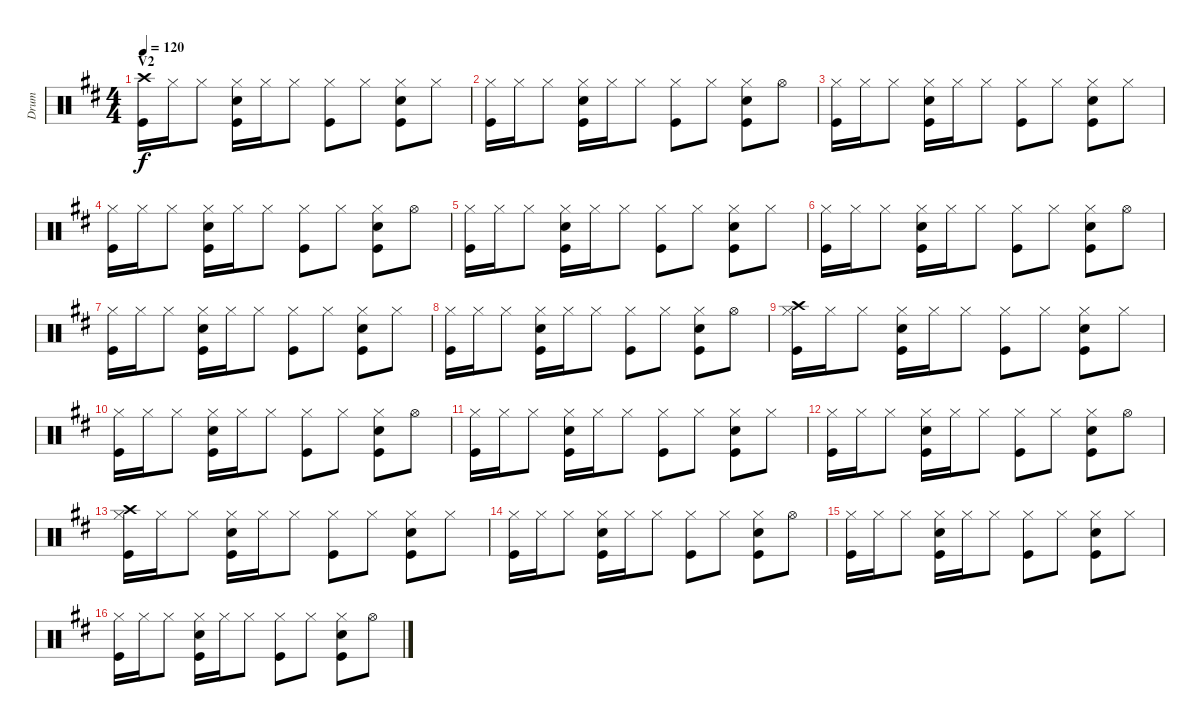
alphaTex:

\track ("Drum" "Drum") {instrument percussion}
\staff {score}
\articulation defaults
\ts (4 4)
\section ("" "V2")
\tempo 120
\clef neutral
\ks d
("Crash high (hit)" "Kick (hit)").16{dy f} "Hi-Hat (closed)".16 "Hi-Hat (closed)".8 ("Hi-Hat (closed)" "Snare (hit) 2" "Kick (hit)").16 "Hi-Hat (closed)".16 "Hi-Hat (closed)".8 ("Hi-Hat (closed)" "Kick (hit)").8 "Hi-Hat (closed)".8 ("Hi-Hat (closed)" "Snare (hit) 2" "Kick (hit)").8 "Hi-Hat (closed)".8 |
("Hi-Hat (closed)" "Kick (hit)").16 "Hi-Hat (closed)".16 "Hi-Hat (closed)".8 ("Hi-Hat (closed)" "Snare (hit) 2" "Kick (hit)").16 "Hi-Hat (closed)".16 "Hi-Hat (closed)".8 ("Hi-Hat (closed)" "Kick (hit)").8 "Hi-Hat (closed)".8 ("Hi-Hat (closed)" "Snare (hit) 2" "Kick (hit)").8 "Hi-Hat (open)".8 |
("Hi-Hat (closed)" "Kick (hit)").16 "Hi-Hat (closed)".16 "Hi-Hat (closed)".8 ("Hi-Hat (closed)" "Snare (hit) 2" "Kick (hit)").16 "Hi-Hat (closed)".16 "Hi-Hat (closed)".8 ("Hi-Hat (closed)" "Kick (hit)").8 "Hi-Hat (closed)".8 ("Hi-Hat (closed)" "Snare (hit) 2" "Kick (hit)").8 "Hi-Hat (closed)".8 |
("Hi-Hat (closed)" "Kick (hit)").16 "Hi-Hat (closed)".16 "Hi-Hat (closed)".8 ("Hi-Hat (closed)" "Snare (hit) 2" "Kick (hit)").16 "Hi-Hat (closed)".16 "Hi-Hat (closed)".8 ("Hi-Hat (closed)" "Kick (hit)").8 "Hi-Hat (closed)".8 ("Hi-Hat (closed)" "Snare (hit) 2" "Kick (hit)").8 "Hi-Hat (open)".8 |
("Hi-Hat (closed)" "Kick (hit)").16 "Hi-Hat (closed)".16 "Hi-Hat (closed)".8 ("Hi-Hat (closed)" "Snare (hit) 2" "Kick (hit)").16 "Hi-Hat (closed)".16 "Hi-Hat (closed)".8 ("Hi-Hat (closed)" "Kick (hit)").8 "Hi-Hat (closed)".8 ("Hi-Hat (closed)" "Snare (hit) 2" "Kick (hit)").8 "Hi-Hat (closed)".8 |
("Hi-Hat (closed)" "Kick (hit)").16 "Hi-Hat (closed)".16 "Hi-Hat (closed)".8 ("Hi-Hat (closed)" "Snare (hit) 2" "Kick (hit)").16 "Hi-Hat (closed)".16 "Hi-Hat (closed)".8 ("Hi-Hat (closed)" "Kick (hit)").8 "Hi-Hat (closed)".8 ("Hi-Hat (closed)" "Snare (hit) 2" "Kick (hit)").8 "Hi-Hat (open)".8 |
("Hi-Hat (closed)" "Kick (hit)").16 "Hi-Hat (closed)".16 "Hi-Hat (closed)".8 ("Hi-Hat (closed)" "Snare (hit) 2" "Kick (hit)").16 "Hi-Hat (closed)".16 "Hi-Hat (closed)".8 ("Hi-Hat (closed)" "Kick (hit)").8 "Hi-Hat (closed)".8 ("Hi-Hat (closed)" "Snare (hit) 2" "Kick (hit)").8 "Hi-Hat (closed)".8 |
("Hi-Hat (closed)" "Kick (hit)").16 "Hi-Hat (closed)".16 "Hi-Hat (closed)".8 ("Hi-Hat (closed)" "Snare (hit) 2" "Kick (hit)").16 "Hi-Hat (closed)".16 "Hi-Hat (closed)".8 ("Hi-Hat (closed)" "Kick (hit)").8 "Hi-Hat (closed)".8 ("Hi-Hat (closed)" "Snare (hit) 2" "Kick (hit)").8 "Hi-Hat (open)".8 |
("Hi-Hat (closed)" "Crash high (hit)" "Kick (hit)").16 "Hi-Hat (closed)".16 "Hi-Hat (closed)".8 ("Hi-Hat (closed)" "Snare (hit) 2" "Kick (hit)").16 "Hi-Hat (closed)".16 "Hi-Hat (closed)".8 ("Hi-Hat (closed)" "Kick (hit)").8 "Hi-Hat (closed)".8 ("Hi-Hat (closed)" "Snare (hit) 2" "Kick (hit)").8 "Hi-Hat (closed)".8 |
("Hi-Hat (closed)" "Kick (hit)").16 "Hi-Hat (closed)".16 "Hi-Hat (closed)".8 ("Hi-Hat (closed)" "Snare (hit) 2" "Kick (hit)").16 "Hi-Hat (closed)".16 "Hi-Hat (closed)".8 ("Hi-Hat (closed)" "Kick (hit)").8 "Hi-Hat (closed)".8 ("Hi-Hat (closed)" "Snare (hit) 2" "Kick (hit)").8 "Hi-Hat (open)".8 |
("Hi-Hat (closed)" "Kick (hit)").16 "Hi-Hat (closed)".16 "Hi-Hat (closed)".8 ("Hi-Hat (closed)" "Snare (hit) 2" "Kick (hit)").16 "Hi-Hat (closed)".16 "Hi-Hat (closed)".8 ("Hi-Hat (closed)" "Kick (hit)").8 "Hi-Hat (closed)".8 ("Hi-Hat (closed)" "Snare (hit) 2" "Kick (hit)").8 "Hi-Hat (closed)".8 |
("Hi-Hat (closed)" "Kick (hit)").16 "Hi-Hat (closed)".16 "Hi-Hat (closed)".8 ("Hi-Hat (closed)" "Snare (hit) 2" "Kick (hit)").16 "Hi-Hat (closed)".16 "Hi-Hat (closed)".8 ("Hi-Hat (closed)" "Kick (hit)").8 "Hi-Hat (closed)".8 ("Hi-Hat (closed)" "Snare (hit) 2" "Kick (hit)").8 "Hi-Hat (open)".8 |
("Hi-Hat (closed)" "Crash high (hit)" "Kick (hit)").16 "Hi-Hat (closed)".16 "Hi-Hat (closed)".8 ("Hi-Hat (closed)" "Snare (hit) 2" "Kick (hit)").16 "Hi-Hat (closed)".16 "Hi-Hat (closed)".8 ("Hi-Hat (closed)" "Kick (hit)").8 "Hi-Hat (closed)".8 ("Hi-Hat (closed)" "Snare (hit) 2" "Kick (hit)").8 "Hi-Hat (closed)".8 |
("Hi-Hat (closed)" "Kick (hit)").16 "Hi-Hat (closed)".16 "Hi-Hat (closed)".8 ("Hi-Hat (closed)" "Snare (hit) 2" "Kick (hit)").16 "Hi-Hat (closed)".16 "Hi-Hat (closed)".8 ("Hi-Hat (closed)" "Kick (hit)").8 "Hi-Hat (closed)".8 ("Hi-Hat (closed)" "Snare (hit) 2" "Kick (hit)").8 "Hi-Hat (open)".8 |
("Hi-Hat (closed)" "Kick (hit)").16 "Hi-Hat (closed)".16 "Hi-Hat (closed)".8 ("Hi-Hat (closed)" "Snare (hit) 2" "Kick (hit)").16 "Hi-Hat (closed)".16 "Hi-Hat (closed)".8 ("Hi-Hat (closed)" "Kick (hit)").8 "Hi-Hat (closed)".8 ("Hi-Hat (closed)" "Snare (hit) 2" "Kick (hit)").8 "Hi-Hat (closed)".8 |
("Hi-Hat (closed)" "Kick (hit)").16 "Hi-Hat (closed)".16 "Hi-Hat (closed)".8 ("Hi-Hat (closed)" "Snare (hit) 2" "Kick (hit)").16 "Hi-Hat (closed)".16 "Hi-Hat (closed)".8 ("Hi-Hat (closed)" "Kick (hit)").8 "Hi-Hat (closed)".8 ("Hi-Hat (closed)" "Snare (hit) 2" "Kick (hit)").8 "Hi-Hat (open)".8
